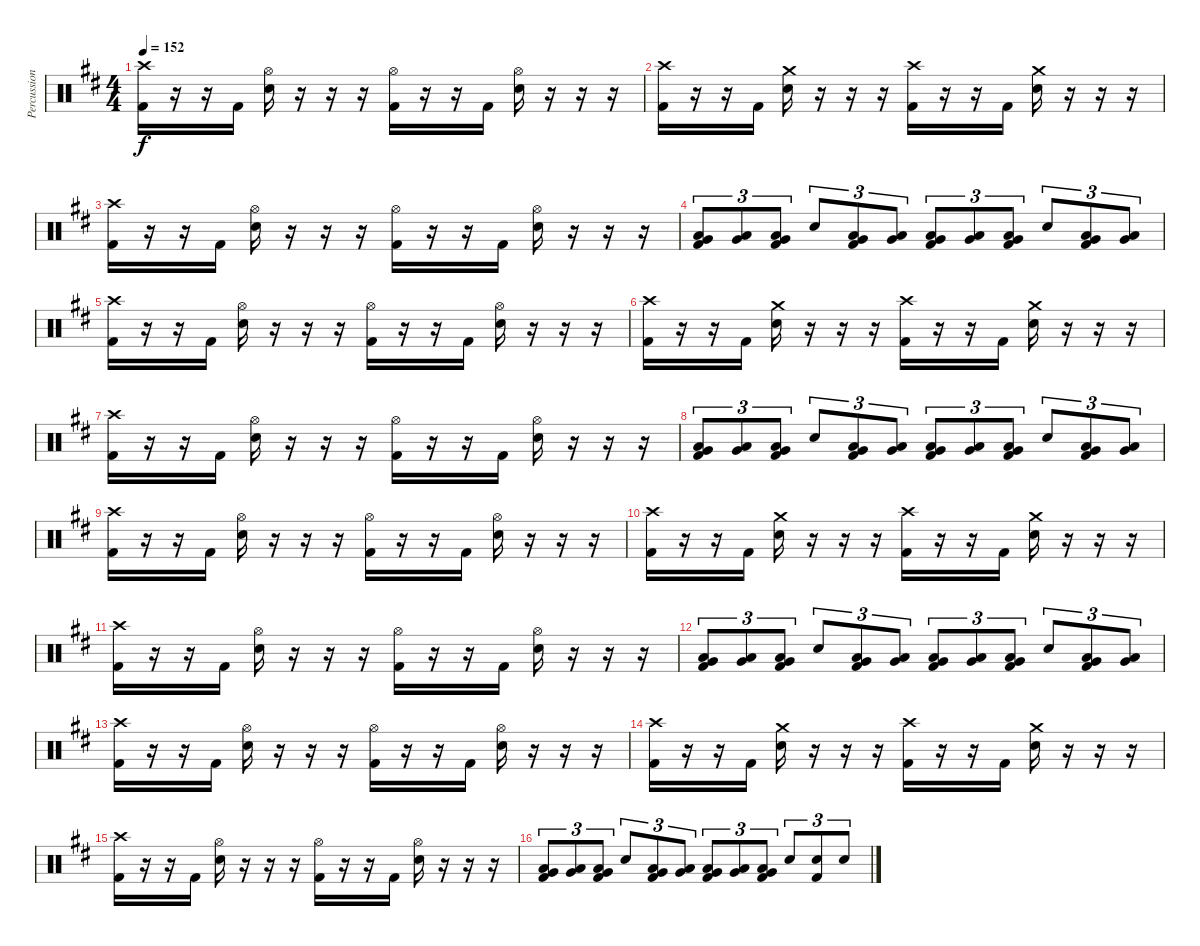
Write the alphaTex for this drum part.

\track ("Percussion" "Percussion") {instrument percussion}
\staff {score}
\articulation defaults
\ts (4 4)
\tempo 152
\clef neutral
\ks d
("Crash high (hit)" "Kick (hit) 2").16{dy f} r.16 r.16 "Kick (hit) 2".16 ("Hi-Hat (open)" "Snare (hit) 2").16 r.16 r.16 r.16 ("Hi-Hat (open)" "Kick (hit) 2").16 r.16 r.16 "Kick (hit) 2".16 ("Hi-Hat (open)" "Snare (hit) 2").16 r.16 r.16 r.16 |
("Crash high (hit)" "Kick (hit) 2").16 r.16 r.16 "Kick (hit) 2".16 ("Crash medium (hit)" "Snare (hit) 2").16 r.16 r.16 r.16 ("Crash high (hit)" "Kick (hit) 2").16 r.16 r.16 "Kick (hit) 2".16 ("Crash medium (hit)" "Snare (hit) 2").16 r.16 r.16 r.16 |
("Crash high (hit)" "Kick (hit) 2").16 r.16 r.16 "Kick (hit) 2".16 ("Hi-Hat (open)" "Snare (hit) 2").16 r.16 r.16 r.16 ("Hi-Hat (open)" "Kick (hit) 2").16 r.16 r.16 "Kick (hit) 2".16 ("Hi-Hat (open)" "Snare (hit) 2").16 r.16 r.16 r.16 |
("Very Low Tom (hit)" "Low Floor Tom (hit)" "Kick (hit) 2").8{tu (3 2)} ("Very Low Tom (hit)" "Low Floor Tom (hit)").8{tu (3 2)} ("Very Low Tom (hit)" "Low Floor Tom (hit)" "Kick (hit) 2").8{tu (3 2)} "Snare (hit) 2".8{tu (3 2)} ("Very Low Tom (hit)" "Low Floor Tom (hit)" "Kick (hit) 2").8{tu (3 2)} ("Very Low Tom (hit)" "Low Floor Tom (hit)").8{tu (3 2)} ("Very Low Tom (hit)" "Low Floor Tom (hit)" "Kick (hit) 2").8{tu (3 2)} ("Very Low Tom (hit)" "Low Floor Tom (hit)").8{tu (3 2)} ("Very Low Tom (hit)" "Low Floor Tom (hit)" "Kick (hit) 2").8{tu (3 2)} "Snare (hit) 2".8{tu (3 2)} ("Very Low Tom (hit)" "Low Floor Tom (hit)" "Kick (hit) 2").8{tu (3 2)} ("Very Low Tom (hit)" "Low Floor Tom (hit)").8{tu (3 2)} |
("Crash high (hit)" "Kick (hit) 2").16 r.16 r.16 "Kick (hit) 2".16 ("Hi-Hat (open)" "Snare (hit) 2").16 r.16 r.16 r.16 ("Hi-Hat (open)" "Kick (hit) 2").16 r.16 r.16 "Kick (hit) 2".16 ("Hi-Hat (open)" "Snare (hit) 2").16 r.16 r.16 r.16 |
("Crash high (hit)" "Kick (hit) 2").16 r.16 r.16 "Kick (hit) 2".16 ("Crash medium (hit)" "Snare (hit) 2").16 r.16 r.16 r.16 ("Crash high (hit)" "Kick (hit) 2").16 r.16 r.16 "Kick (hit) 2".16 ("Crash medium (hit)" "Snare (hit) 2").16 r.16 r.16 r.16 |
("Crash high (hit)" "Kick (hit) 2").16 r.16 r.16 "Kick (hit) 2".16 ("Hi-Hat (open)" "Snare (hit) 2").16 r.16 r.16 r.16 ("Hi-Hat (open)" "Kick (hit) 2").16 r.16 r.16 "Kick (hit) 2".16 ("Hi-Hat (open)" "Snare (hit) 2").16 r.16 r.16 r.16 |
("Very Low Tom (hit)" "Low Floor Tom (hit)" "Kick (hit) 2").8{tu (3 2)} ("Very Low Tom (hit)" "Low Floor Tom (hit)").8{tu (3 2)} ("Very Low Tom (hit)" "Low Floor Tom (hit)" "Kick (hit) 2").8{tu (3 2)} "Snare (hit) 2".8{tu (3 2)} ("Very Low Tom (hit)" "Low Floor Tom (hit)" "Kick (hit) 2").8{tu (3 2)} ("Very Low Tom (hit)" "Low Floor Tom (hit)").8{tu (3 2)} ("Very Low Tom (hit)" "Low Floor Tom (hit)" "Kick (hit) 2").8{tu (3 2)} ("Very Low Tom (hit)" "Low Floor Tom (hit)").8{tu (3 2)} ("Very Low Tom (hit)" "Low Floor Tom (hit)" "Kick (hit) 2").8{tu (3 2)} "Snare (hit) 2".8{tu (3 2)} ("Very Low Tom (hit)" "Low Floor Tom (hit)" "Kick (hit) 2").8{tu (3 2)} ("Very Low Tom (hit)" "Low Floor Tom (hit)").8{tu (3 2)} |
("Crash high (hit)" "Kick (hit) 2").16 r.16 r.16 "Kick (hit) 2".16 ("Hi-Hat (open)" "Snare (hit) 2").16 r.16 r.16 r.16 ("Hi-Hat (open)" "Kick (hit) 2").16 r.16 r.16 "Kick (hit) 2".16 ("Hi-Hat (open)" "Snare (hit) 2").16 r.16 r.16 r.16 |
("Crash high (hit)" "Kick (hit) 2").16 r.16 r.16 "Kick (hit) 2".16 ("Crash medium (hit)" "Snare (hit) 2").16 r.16 r.16 r.16 ("Crash high (hit)" "Kick (hit) 2").16 r.16 r.16 "Kick (hit) 2".16 ("Crash medium (hit)" "Snare (hit) 2").16 r.16 r.16 r.16 |
("Crash high (hit)" "Kick (hit) 2").16 r.16 r.16 "Kick (hit) 2".16 ("Hi-Hat (open)" "Snare (hit) 2").16 r.16 r.16 r.16 ("Hi-Hat (open)" "Kick (hit) 2").16 r.16 r.16 "Kick (hit) 2".16 ("Hi-Hat (open)" "Snare (hit) 2").16 r.16 r.16 r.16 |
("Very Low Tom (hit)" "Low Floor Tom (hit)" "Kick (hit) 2").8{tu (3 2)} ("Very Low Tom (hit)" "Low Floor Tom (hit)").8{tu (3 2)} ("Very Low Tom (hit)" "Low Floor Tom (hit)" "Kick (hit) 2").8{tu (3 2)} "Snare (hit) 2".8{tu (3 2)} ("Very Low Tom (hit)" "Low Floor Tom (hit)" "Kick (hit) 2").8{tu (3 2)} ("Very Low Tom (hit)" "Low Floor Tom (hit)").8{tu (3 2)} ("Very Low Tom (hit)" "Low Floor Tom (hit)" "Kick (hit) 2").8{tu (3 2)} ("Very Low Tom (hit)" "Low Floor Tom (hit)").8{tu (3 2)} ("Very Low Tom (hit)" "Low Floor Tom (hit)" "Kick (hit) 2").8{tu (3 2)} "Snare (hit) 2".8{tu (3 2)} ("Very Low Tom (hit)" "Low Floor Tom (hit)" "Kick (hit) 2").8{tu (3 2)} ("Very Low Tom (hit)" "Low Floor Tom (hit)").8{tu (3 2)} |
("Crash high (hit)" "Kick (hit) 2").16 r.16 r.16 "Kick (hit) 2".16 ("Hi-Hat (open)" "Snare (hit) 2").16 r.16 r.16 r.16 ("Hi-Hat (open)" "Kick (hit) 2").16 r.16 r.16 "Kick (hit) 2".16 ("Hi-Hat (open)" "Snare (hit) 2").16 r.16 r.16 r.16 |
("Crash high (hit)" "Kick (hit) 2").16 r.16 r.16 "Kick (hit) 2".16 ("Crash medium (hit)" "Snare (hit) 2").16 r.16 r.16 r.16 ("Crash high (hit)" "Kick (hit) 2").16 r.16 r.16 "Kick (hit) 2".16 ("Crash medium (hit)" "Snare (hit) 2").16 r.16 r.16 r.16 |
("Crash high (hit)" "Kick (hit) 2").16 r.16 r.16 "Kick (hit) 2".16 ("Hi-Hat (open)" "Snare (hit) 2").16 r.16 r.16 r.16 ("Hi-Hat (open)" "Kick (hit) 2").16 r.16 r.16 "Kick (hit) 2".16 ("Hi-Hat (open)" "Snare (hit) 2").16 r.16 r.16 r.16 |
("Very Low Tom (hit)" "Low Floor Tom (hit)" "Kick (hit) 2").8{tu (3 2)} ("Very Low Tom (hit)" "Low Floor Tom (hit)").8{tu (3 2)} ("Very Low Tom (hit)" "Low Floor Tom (hit)" "Kick (hit) 2").8{tu (3 2)} "Snare (hit) 2".8{tu (3 2)} ("Very Low Tom (hit)" "Low Floor Tom (hit)" "Kick (hit) 2").8{tu (3 2)} ("Very Low Tom (hit)" "Low Floor Tom (hit)").8{tu (3 2)} ("Very Low Tom (hit)" "Low Floor Tom (hit)" "Kick (hit) 2").8{tu (3 2)} ("Very Low Tom (hit)" "Low Floor Tom (hit)").8{tu (3 2)} ("Very Low Tom (hit)" "Low Floor Tom (hit)" "Kick (hit) 2").8{tu (3 2)} "Snare (hit) 2".8{tu (3 2)} ("Snare (hit) 2" "Kick (hit) 2").8{tu (3 2)} "Snare (hit) 2".8{tu (3 2)}
